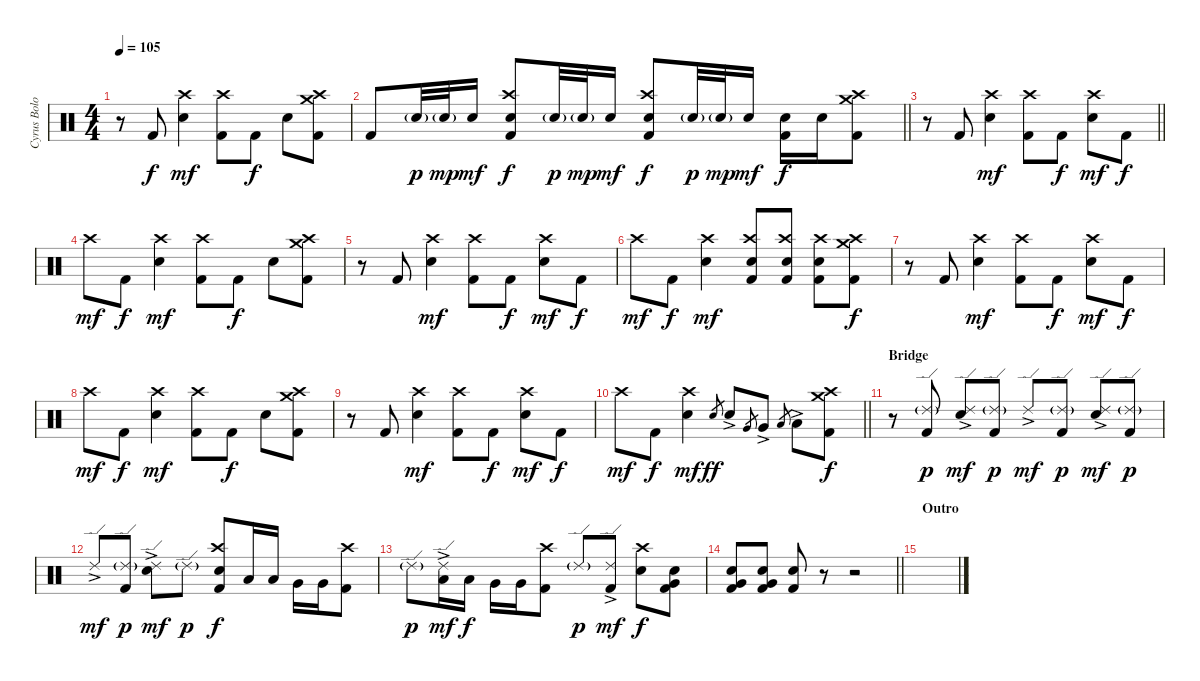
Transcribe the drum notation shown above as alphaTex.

\track ("Cyrus Bolooki" "Cyrus Bolo") {instrument percussion}
\staff {score}
\articulation defaults
\ts (4 4)
\tempo 105
\clef neutral
\ks c
r.8{dy f} "Kick (hit) 2".8 ("Crash high (hit)" "Electric Snare (hit)").4{dy mf} ("Crash high (hit)" "Kick (hit) 2").8 "Kick (hit) 2".8{dy f} "Electric Snare (hit)".8 ("Crash high (hit)" "Crash medium (hit)" "Kick (hit) 2").8 |
\barLineRight lightlight "Kick (hit) 2".8 "Electric Snare (hit)"{g}.32{dy p} "Electric Snare (hit)"{g}.32{dy mp} "Electric Snare (hit)".16{dy mf}
("Crash high (hit)" "Electric Snare (hit)" "Kick (hit) 2").8{dy f} "Electric Snare (hit)"{g}.32{dy p} "Electric Snare (hit)"{g}.32{dy mp} "Electric Snare (hit)".16{dy mf} ("Crash high (hit)" "Electric Snare (hit)" "Kick (hit) 2").8{dy f} "Electric Snare (hit)"{g}.32{dy p} "Electric Snare (hit)"{g}.32{dy mp} "Electric Snare (hit)".16{dy mf} ("Electric Snare (hit)" "Kick (hit) 2").16{dy f} "Electric Snare (hit)".16 ("Crash high (hit)" "Crash medium (hit)" "Kick (hit) 2").8 |
\barLineRight lightlight
r.8 "Kick (hit) 2".8 ("Crash high (hit)" "Electric Snare (hit)").4{dy mf} ("Crash high (hit)" "Kick (hit) 2").8 "Kick (hit) 2".8{dy f} ("Crash high (hit)" "Electric Snare (hit)").8{dy mf} "Kick (hit) 2".8{dy f} |
"Crash high (hit)".8{dy mf} "Kick (hit) 2".8{dy f} ("Crash high (hit)" "Electric Snare (hit)").4{dy mf} ("Crash high (hit)" "Kick (hit) 2").8 "Kick (hit) 2".8{dy f} "Electric Snare (hit)".8 ("Crash high (hit)" "Crash medium (hit)" "Kick (hit) 2").8 |
r.8 "Kick (hit) 2".8 ("Crash high (hit)" "Electric Snare (hit)").4{dy mf} ("Crash high (hit)" "Kick (hit) 2").8 "Kick (hit) 2".8{dy f} ("Crash high (hit)" "Electric Snare (hit)").8{dy mf} "Kick (hit) 2".8{dy f} |
"Crash high (hit)".8{dy mf} "Kick (hit) 2".8{dy f} ("Crash high (hit)" "Electric Snare (hit)").4{dy mf} ("Crash high (hit)" "Electric Snare (hit)" "Kick (hit) 2").8 ("Crash high (hit)" "Electric Snare (hit)" "Kick (hit) 2").8 ("Crash high (hit)" "Electric Snare (hit)" "Kick (hit) 2").8 ("Crash high (hit)" "Crash medium (hit)" "Kick (hit) 2").8{dy f} |
r.8 "Kick (hit) 2".8 ("Crash high (hit)" "Electric Snare (hit)").4{dy mf} ("Crash high (hit)" "Kick (hit) 2").8 "Kick (hit) 2".8{dy f} ("Crash high (hit)" "Electric Snare (hit)").8{dy mf} "Kick (hit) 2".8{dy f} |
"Crash high (hit)".8{dy mf} "Kick (hit) 2".8{dy f} ("Crash high (hit)" "Electric Snare (hit)").4{dy mf} ("Crash high (hit)" "Kick (hit) 2").8 "Kick (hit) 2".8{dy f} "Electric Snare (hit)".8 ("Crash high (hit)" "Crash medium (hit)" "Kick (hit) 2").8 |
r.8 "Kick (hit) 2".8 ("Crash high (hit)" "Electric Snare (hit)").4{dy mf} ("Crash high (hit)" "Kick (hit) 2").8 "Kick (hit) 2".8{dy f} ("Crash high (hit)" "Electric Snare (hit)").8{dy mf} "Kick (hit) 2".8{dy f} |
\barLineRight lightlight "Crash high (hit)".8{dy mf} "Kick (hit) 2".8{dy f}
("Crash high (hit)" "Electric Snare (hit)").4{dy mf} "Electric Snare (hit)".8{gr dy ff} "Electric Snare (hit)"{ac}.8 "Very Low Tom (hit)".8{gr} "Very Low Tom (hit)"{ac}.8 "Low Floor Tom (hit)".8{gr} "Low Floor Tom (hit)"{ac}.8 ("Crash high (hit)" "Crash medium (hit)" "Kick (hit) 2").8{dy f} |
\section ("" "Bridge")
r.8 ("Ride (edge) 2"{g} "Kick (hit) 2").8{dy p} ("Ride (edge) 2"{ac} "Electric Snare (hit)").8{dy mf} ("Ride (edge) 2"{g} "Kick (hit) 2").8{dy p} "Ride (edge) 2"{ac}.8{dy mf} ("Ride (edge) 2"{g} "Kick (hit) 2").8{dy p} ("Ride (edge) 2"{ac} "Electric Snare (hit)").8{dy mf} ("Ride (edge) 2"{g} "Kick (hit) 2").8{dy p} |
"Ride (edge) 2"{ac}.8{dy mf} ("Ride (edge) 2"{g} "Kick (hit) 2").8{dy p} ("Ride (edge) 2"{ac} "Electric Snare (hit)").8{dy mf} "Ride (edge) 2"{g}.8{dy p} ("Crash high (hit)" "Electric Snare (hit)" "Kick (hit) 2").8{dy f} "Low Tom (hit)".16 "Low Tom (hit)".16 "Very Low Tom (hit)".16 "Very Low Tom (hit)".16 ("Crash high (hit)" "Kick (hit) 2").8 |
"Ride (edge) 2"{g}.8{dy p} ("Ride (edge) 2"{ac} "Low Tom (hit)").16{dy mf} "Low Tom (hit)".16{dy f} "Very Low Tom (hit)".16 "Very Low Tom (hit)".16 ("Crash high (hit)" "Kick (hit) 2").8 "Ride (edge) 2"{g}.8{dy p} ("Ride (edge) 2"{ac} "Kick (hit) 2").8{dy mf} ("Crash high (hit)" "Electric Snare (hit)").8{dy f} ("Very Low Tom (hit)" "Electric Snare (hit)" "Kick (hit) 2").8 |
\barLineRight lightlight
("Very Low Tom (hit)" "Electric Snare (hit)" "Kick (hit) 2").8 ("Very Low Tom (hit)" "Electric Snare (hit)" "Kick (hit) 2").8 ("Electric Snare (hit)" "Kick (hit) 2").8 r.8 r.2 |
\section ("" "Outro")
